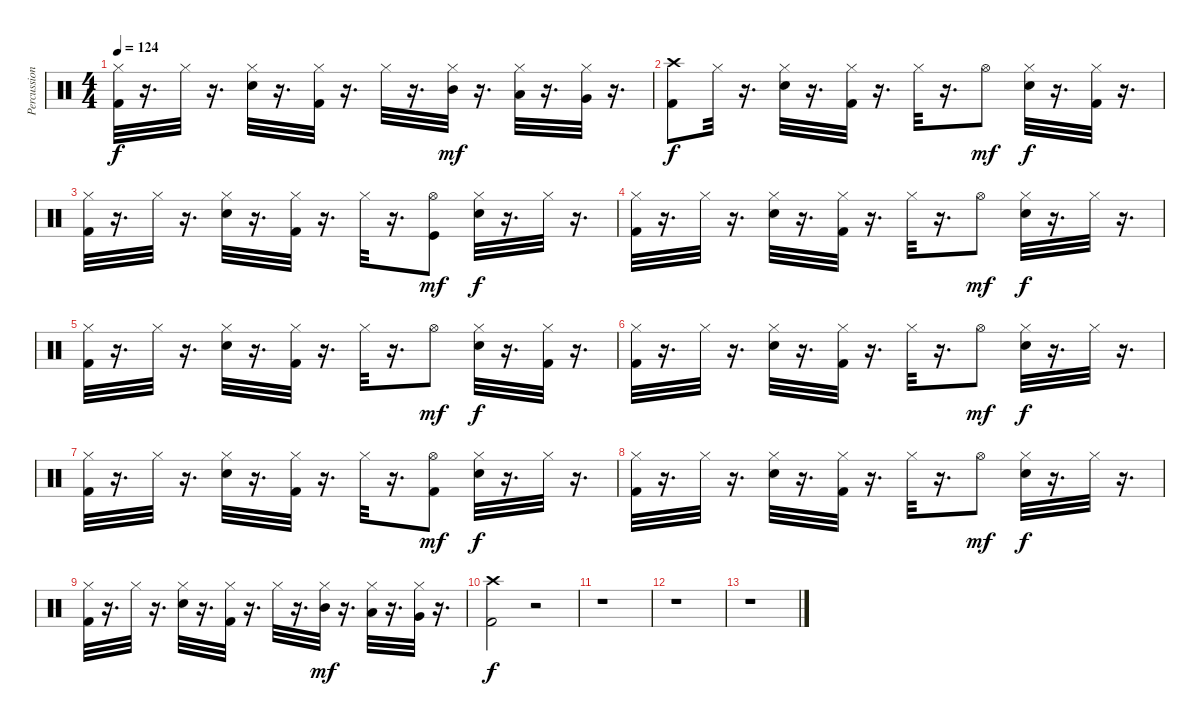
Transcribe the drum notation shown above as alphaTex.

\track ("Percussions" "Percussion") {instrument percussion}
\staff {score}
\articulation defaults
\ts (4 4)
\tempo 124
\clef neutral
\ks c
("Kick (hit) 2" "Hi-Hat (closed)").32{dy f} r.16{d} "Hi-Hat (closed)".32 r.16{d} ("Snare (hit) 2" "Hi-Hat (closed)").32 r.16{d} ("Kick (hit) 2" "Hi-Hat (closed)").32 r.16{d} "Hi-Hat (closed)".32 r.16{d} ("Hi-Hat (closed)" "Mid Tom (hit)").32{dy mf} r.16{d} ("Hi-Hat (closed)" "Low Tom (hit)").32 r.16{d} ("Hi-Hat (closed)" "Very Low Tom (hit)").32 r.16{d} |
("Kick (hit) 2" "Crash high (hit)").8{dy f} "Hi-Hat (closed)".32 r.16{d} ("Snare (hit) 2" "Hi-Hat (closed)").32 r.16{d} ("Kick (hit) 2" "Hi-Hat (closed)").32 r.16{d} "Hi-Hat (closed)".32 r.16{d} "Hi-Hat (open)".8{dy mf} ("Snare (hit) 2" "Hi-Hat (closed)").32{dy f} r.16{d} ("Kick (hit) 2" "Hi-Hat (closed)").32 r.16{d} |
("Kick (hit) 2" "Hi-Hat (closed)").32 r.16{d} "Hi-Hat (closed)".32 r.16{d} ("Snare (hit) 2" "Hi-Hat (closed)").32 r.16{d} ("Kick (hit) 2" "Hi-Hat (closed)").32 r.16{d} "Hi-Hat (closed)".32 r.16{d} ("Kick (hit)" "Hi-Hat (open)").8{dy mf} ("Snare (hit) 2" "Hi-Hat (closed)").32{dy f} r.16{d} "Hi-Hat (closed)".32 r.16{d} |
("Kick (hit) 2" "Hi-Hat (closed)").32 r.16{d} "Hi-Hat (closed)".32 r.16{d} ("Snare (hit) 2" "Hi-Hat (closed)").32 r.16{d} ("Kick (hit) 2" "Hi-Hat (closed)").32 r.16{d} "Hi-Hat (closed)".32 r.16{d} "Hi-Hat (open)".8{dy mf} ("Snare (hit) 2" "Hi-Hat (closed)").32{dy f} r.16{d} "Hi-Hat (closed)".32 r.16{d} |
("Kick (hit) 2" "Hi-Hat (closed)").32 r.16{d} "Hi-Hat (closed)".32 r.16{d} ("Snare (hit) 2" "Hi-Hat (closed)").32 r.16{d} ("Kick (hit) 2" "Hi-Hat (closed)").32 r.16{d} "Hi-Hat (closed)".32 r.16{d} "Hi-Hat (open)".8{dy mf} ("Snare (hit) 2" "Hi-Hat (closed)").32{dy f} r.16{d} ("Kick (hit) 2" "Hi-Hat (closed)").32 r.16{d} |
("Kick (hit) 2" "Hi-Hat (closed)").32 r.16{d} "Hi-Hat (closed)".32 r.16{d} ("Snare (hit) 2" "Hi-Hat (closed)").32 r.16{d} ("Kick (hit) 2" "Hi-Hat (closed)").32 r.16{d} "Hi-Hat (closed)".32 r.16{d} "Hi-Hat (open)".8{dy mf} ("Snare (hit) 2" "Hi-Hat (closed)").32{dy f} r.16{d} "Hi-Hat (closed)".32 r.16{d} |
("Kick (hit) 2" "Hi-Hat (closed)").32 r.16{d} "Hi-Hat (closed)".32 r.16{d} ("Snare (hit) 2" "Hi-Hat (closed)").32 r.16{d} ("Kick (hit) 2" "Hi-Hat (closed)").32 r.16{d} "Hi-Hat (closed)".32 r.16{d} ("Kick (hit) 2" "Hi-Hat (open)").8{dy mf} ("Snare (hit) 2" "Hi-Hat (closed)").32{dy f} r.16{d} "Hi-Hat (closed)".32 r.16{d} |
("Kick (hit) 2" "Hi-Hat (closed)").32 r.16{d} "Hi-Hat (closed)".32 r.16{d} ("Snare (hit) 2" "Hi-Hat (closed)").32 r.16{d} ("Kick (hit) 2" "Hi-Hat (closed)").32 r.16{d} "Hi-Hat (closed)".32 r.16{d} "Hi-Hat (open)".8{dy mf} ("Snare (hit) 2" "Hi-Hat (closed)").32{dy f} r.16{d} "Hi-Hat (closed)".32 r.16{d} |
("Kick (hit) 2" "Hi-Hat (closed)").32 r.16{d} "Hi-Hat (closed)".32 r.16{d} ("Snare (hit) 2" "Hi-Hat (closed)").32 r.16{d} ("Kick (hit) 2" "Hi-Hat (closed)").32 r.16{d} "Hi-Hat (closed)".32 r.16{d} ("Hi-Hat (closed)" "Mid Tom (hit)").32{dy mf} r.16{d} ("Hi-Hat (closed)" "Low Tom (hit)").32 r.16{d} ("Hi-Hat (closed)" "Very Low Tom (hit)").32 r.16{d} |
("Kick (hit) 2" "Crash high (hit)").2{dy f} r.2 |
r.1 |
r.1 |
r.1
